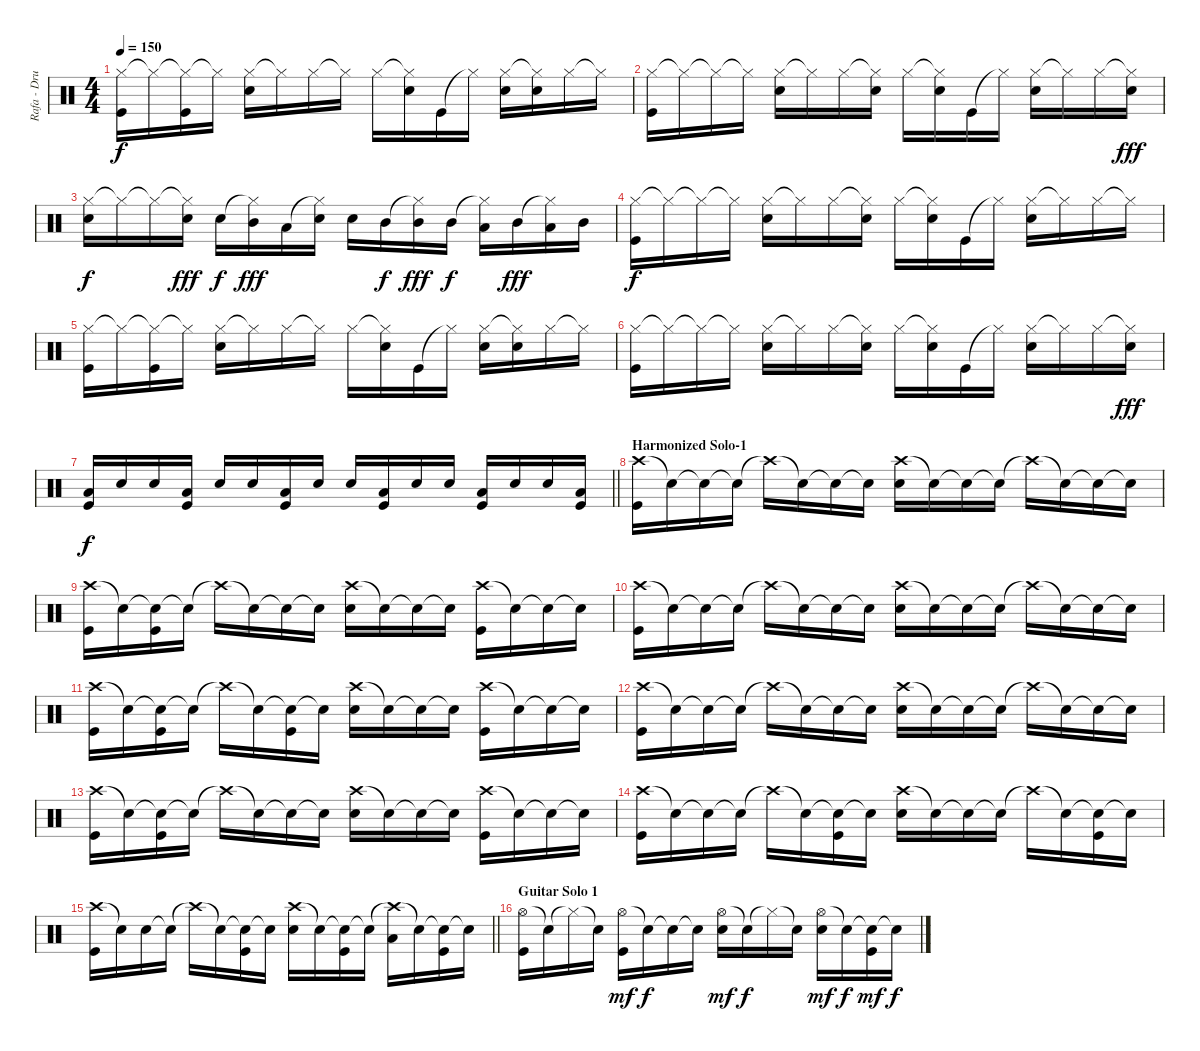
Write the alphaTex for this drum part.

\track ("Rafa - Drums" "Rafa - Dru") {instrument percussion}
\staff {score}
\articulation defaults
\ts (4 4)
\tempo 150
\clef neutral
\ks c
("Hi-Hat (closed)" "Kick (hit)").16{dy f} "Hi-Hat (closed)"{t}.16 ("Hi-Hat (closed)"{t} "Kick (hit)").16 "Hi-Hat (closed)"{t}.16 ("Hi-Hat (closed)" "Electric Snare (hit)").16 "Hi-Hat (closed)"{t}.16 "Hi-Hat (closed)".16 "Hi-Hat (closed)"{t}.16 "Hi-Hat (closed)".16 ("Hi-Hat (closed)"{t} "Electric Snare (hit)").16 "Kick (hit)".16 "Hi-Hat (closed)"{t}.16 ("Hi-Hat (closed)" "Electric Snare (hit)").16 ("Hi-Hat (closed)"{t} "Electric Snare (hit)").16 "Hi-Hat (closed)".16 "Hi-Hat (closed)"{t}.16 |
("Hi-Hat (closed)" "Kick (hit)").16 "Hi-Hat (closed)"{t}.16 "Hi-Hat (closed)"{t}.16 "Hi-Hat (closed)"{t}.16 ("Hi-Hat (closed)" "Electric Snare (hit)").16 "Hi-Hat (closed)"{t}.16 "Hi-Hat (closed)".16 ("Hi-Hat (closed)"{t} "Electric Snare (hit)").16 "Hi-Hat (closed)".16 ("Hi-Hat (closed)"{t} "Electric Snare (hit)").16 "Kick (hit)".16 "Hi-Hat (closed)"{t}.16 ("Hi-Hat (closed)" "Electric Snare (hit)").16 "Hi-Hat (closed)"{t}.16 "Hi-Hat (closed)".16 ("Hi-Hat (closed)"{t} "Electric Snare (hit)").16{dy fff} |
("Hi-Hat (closed)" "Electric Snare (hit)").16{dy f} "Hi-Hat (closed)"{t}.16 "Hi-Hat (closed)"{t}.16 ("Hi-Hat (closed)"{t} "Electric Snare (hit)").16{dy fff} "Electric Snare (hit)".16{dy f} ("Hi-Hat (closed)"{t} "Mid Tom (hit)").16{dy fff} "Low Tom (hit)".16 ("Hi-Hat (closed)"{t} "Electric Snare (hit)").16 "Electric Snare (hit)".16 "Mid Tom (hit)".16{dy f} ("Hi-Hat (closed)"{t} "Mid Tom (hit)").16{dy fff} "Mid Tom (hit)".16{dy f} ("Hi-Hat (closed)"{t} "Low Tom (hit)").16 "Mid Tom (hit)".16{dy fff} ("Hi-Hat (closed)"{t} "Low Tom (hit)").16 "Mid Tom (hit)".16 |
("Hi-Hat (closed)" "Kick (hit)").16{dy f} "Hi-Hat (closed)"{t}.16 "Hi-Hat (closed)"{t}.16 "Hi-Hat (closed)"{t}.16 ("Hi-Hat (closed)" "Electric Snare (hit)").16 "Hi-Hat (closed)"{t}.16 "Hi-Hat (closed)".16 ("Hi-Hat (closed)"{t} "Electric Snare (hit)").16 "Hi-Hat (closed)".16 ("Hi-Hat (closed)"{t} "Electric Snare (hit)").16 "Kick (hit)".16 "Hi-Hat (closed)"{t}.16 ("Hi-Hat (closed)" "Electric Snare (hit)").16 "Hi-Hat (closed)"{t}.16 "Hi-Hat (closed)".16 "Hi-Hat (closed)"{t}.16 |
("Hi-Hat (closed)" "Kick (hit)").16 "Hi-Hat (closed)"{t}.16 ("Hi-Hat (closed)"{t} "Kick (hit)").16 "Hi-Hat (closed)"{t}.16 ("Hi-Hat (closed)" "Electric Snare (hit)").16 "Hi-Hat (closed)"{t}.16 "Hi-Hat (closed)".16 "Hi-Hat (closed)"{t}.16 "Hi-Hat (closed)".16 ("Hi-Hat (closed)"{t} "Electric Snare (hit)").16 "Kick (hit)".16 "Hi-Hat (closed)"{t}.16 ("Hi-Hat (closed)" "Electric Snare (hit)").16 ("Hi-Hat (closed)"{t} "Electric Snare (hit)").16 "Hi-Hat (closed)".16 "Hi-Hat (closed)"{t}.16 |
("Hi-Hat (closed)" "Kick (hit)").16 "Hi-Hat (closed)"{t}.16 "Hi-Hat (closed)"{t}.16 "Hi-Hat (closed)"{t}.16 ("Hi-Hat (closed)" "Electric Snare (hit)").16 "Hi-Hat (closed)"{t}.16 "Hi-Hat (closed)".16 ("Hi-Hat (closed)"{t} "Electric Snare (hit)").16 "Hi-Hat (closed)".16 ("Hi-Hat (closed)"{t} "Electric Snare (hit)").16 "Kick (hit)".16 "Hi-Hat (closed)"{t}.16 ("Hi-Hat (closed)" "Electric Snare (hit)").16 "Hi-Hat (closed)"{t}.16 "Hi-Hat (closed)".16 ("Hi-Hat (closed)"{t} "Electric Snare (hit)").16{dy fff} |
\barLineRight lightlight
("Low Floor Tom (hit)" "Kick (hit)").16{dy f} "Electric Snare (hit)".16 "Electric Snare (hit)".16 ("Low Floor Tom (hit)" "Kick (hit)").16 "Electric Snare (hit)".16 "Electric Snare (hit)".16 ("Low Floor Tom (hit)" "Kick (hit)").16 "Electric Snare (hit)".16 "Electric Snare (hit)".16 ("Low Floor Tom (hit)" "Kick (hit)").16 "Electric Snare (hit)".16 "Electric Snare (hit)".16 ("Low Floor Tom (hit)" "Kick (hit)").16 "Electric Snare (hit)".16 "Electric Snare (hit)".16 ("Low Floor Tom (hit)" "Kick (hit)").16 |
\section ("" "Harmonized Solo-1")
("Crash high (hit)" "Kick (hit)").16 "Snare (hit)"{t}.16 "Snare (hit)"{t}.16 "Snare (hit)"{t}.16 "Crash high (hit)"{t}.16 "Snare (hit)"{t}.16 "Snare (hit)"{t}.16 "Snare (hit)"{t}.16 ("Crash high (hit)" "Electric Snare (hit)").16 "Snare (hit)"{t}.16 "Snare (hit)"{t}.16 "Snare (hit)"{t}.16 "Crash high (hit)"{t}.16 "Snare (hit)"{t}.16 "Snare (hit)"{t}.16 "Snare (hit)"{t}.16 |
("Crash high (hit)" "Kick (hit)").16 "Snare (hit)"{t}.16 ("Snare (hit)"{t} "Kick (hit)").16 "Snare (hit)"{t}.16 "Crash high (hit)"{t}.16 "Snare (hit)"{t}.16 "Snare (hit)"{t}.16 "Snare (hit)"{t}.16 ("Crash high (hit)" "Electric Snare (hit)").16 "Snare (hit)"{t}.16 "Snare (hit)"{t}.16 "Snare (hit)"{t}.16 ("Crash high (hit)" "Kick (hit)").16 "Snare (hit)"{t}.16 "Snare (hit)"{t}.16 "Snare (hit)"{t}.16 |
("Crash high (hit)" "Kick (hit)").16 "Snare (hit)"{t}.16 "Snare (hit)"{t}.16 "Snare (hit)"{t}.16 "Crash high (hit)"{t}.16 "Snare (hit)"{t}.16 "Snare (hit)"{t}.16 "Snare (hit)"{t}.16 ("Crash high (hit)" "Electric Snare (hit)").16 "Snare (hit)"{t}.16 "Snare (hit)"{t}.16 "Snare (hit)"{t}.16 "Crash high (hit)"{t}.16 "Snare (hit)"{t}.16 "Snare (hit)"{t}.16 "Snare (hit)"{t}.16 |
("Crash high (hit)" "Kick (hit)").16 "Snare (hit)"{t}.16 ("Snare (hit)"{t} "Kick (hit)").16 "Snare (hit)"{t}.16 "Crash high (hit)"{t}.16 "Snare (hit)"{t}.16 ("Snare (hit)"{t} "Kick (hit)").16 "Snare (hit)"{t}.16 ("Crash high (hit)" "Electric Snare (hit)").16 "Snare (hit)"{t}.16 "Snare (hit)"{t}.16 "Snare (hit)"{t}.16 ("Crash high (hit)" "Kick (hit)").16 "Snare (hit)"{t}.16 "Snare (hit)"{t}.16 "Snare (hit)"{t}.16 |
("Crash high (hit)" "Kick (hit)").16 "Snare (hit)"{t}.16 "Snare (hit)"{t}.16 "Snare (hit)"{t}.16 "Crash high (hit)"{t}.16 "Snare (hit)"{t}.16 "Snare (hit)"{t}.16 "Snare (hit)"{t}.16 ("Crash high (hit)" "Electric Snare (hit)").16 "Snare (hit)"{t}.16 "Snare (hit)"{t}.16 "Snare (hit)"{t}.16 "Crash high (hit)"{t}.16 "Snare (hit)"{t}.16 "Snare (hit)"{t}.16 "Snare (hit)"{t}.16 |
("Crash high (hit)" "Kick (hit)").16 "Snare (hit)"{t}.16 ("Snare (hit)"{t} "Kick (hit)").16 "Snare (hit)"{t}.16 "Crash high (hit)"{t}.16 "Snare (hit)"{t}.16 "Snare (hit)"{t}.16 "Snare (hit)"{t}.16 ("Crash high (hit)" "Electric Snare (hit)").16 "Snare (hit)"{t}.16 "Snare (hit)"{t}.16 "Snare (hit)"{t}.16 ("Crash high (hit)" "Kick (hit)").16 "Snare (hit)"{t}.16 "Snare (hit)"{t}.16 "Snare (hit)"{t}.16 |
("Crash high (hit)" "Kick (hit)").16 "Snare (hit)"{t}.16 "Snare (hit)"{t}.16 "Snare (hit)"{t}.16 "Crash high (hit)"{t}.16 "Snare (hit)"{t}.16 ("Snare (hit)"{t} "Kick (hit)").16 "Snare (hit)"{t}.16 ("Crash high (hit)" "Electric Snare (hit)").16 "Snare (hit)"{t}.16 "Snare (hit)"{t}.16 "Snare (hit)"{t}.16 "Crash high (hit)"{t}.16 "Snare (hit)"{t}.16 ("Snare (hit)"{t} "Kick (hit)").16 "Snare (hit)"{t}.16 |
\barLineRight lightlight
("Crash high (hit)" "Kick (hit)").16 "Snare (hit)"{t}.16 "Electric Snare (hit)".16 "Snare (hit)"{t}.16 "Crash high (hit)"{t}.16 "Snare (hit)"{t}.16 ("Snare (hit)"{t} "Kick (hit)").16 "Snare (hit)"{t}.16 ("Crash high (hit)" "Electric Snare (hit)").16 "Snare (hit)"{t}.16 ("Snare (hit)"{t} "Kick (hit)").16 "Snare (hit)"{t}.16 ("Crash high (hit)"{t} "Low Tom (hit)").16 "Snare (hit)"{t}.16 ("Snare (hit)"{t} "Kick (hit)").16 "Snare (hit)"{t}.16 |
\section ("" "Guitar Solo 1")
("Hi-Hat (open)" "Kick (hit)").16 "Snare (hit)"{t}.16 "Hi-Hat (closed)"{t}.16 "Snare (hit)"{t}.16 ("Hi-Hat (open)" "Kick (hit)").16{dy mf} "Snare (hit)"{t}.16{dy f} "Snare (hit)"{t}.16 "Snare (hit)"{t}.16 ("Hi-Hat (open)" "Electric Snare (hit)").16{dy mf} "Snare (hit)"{t}.16{dy f} "Hi-Hat (closed)"{t}.16 "Snare (hit)"{t}.16 ("Hi-Hat (open)" "Electric Snare (hit)").16{dy mf} "Snare (hit)"{t}.16{dy f} ("Snare (hit)"{t} "Kick (hit)").16{dy mf} "Snare (hit)"{t}.16{dy f}
